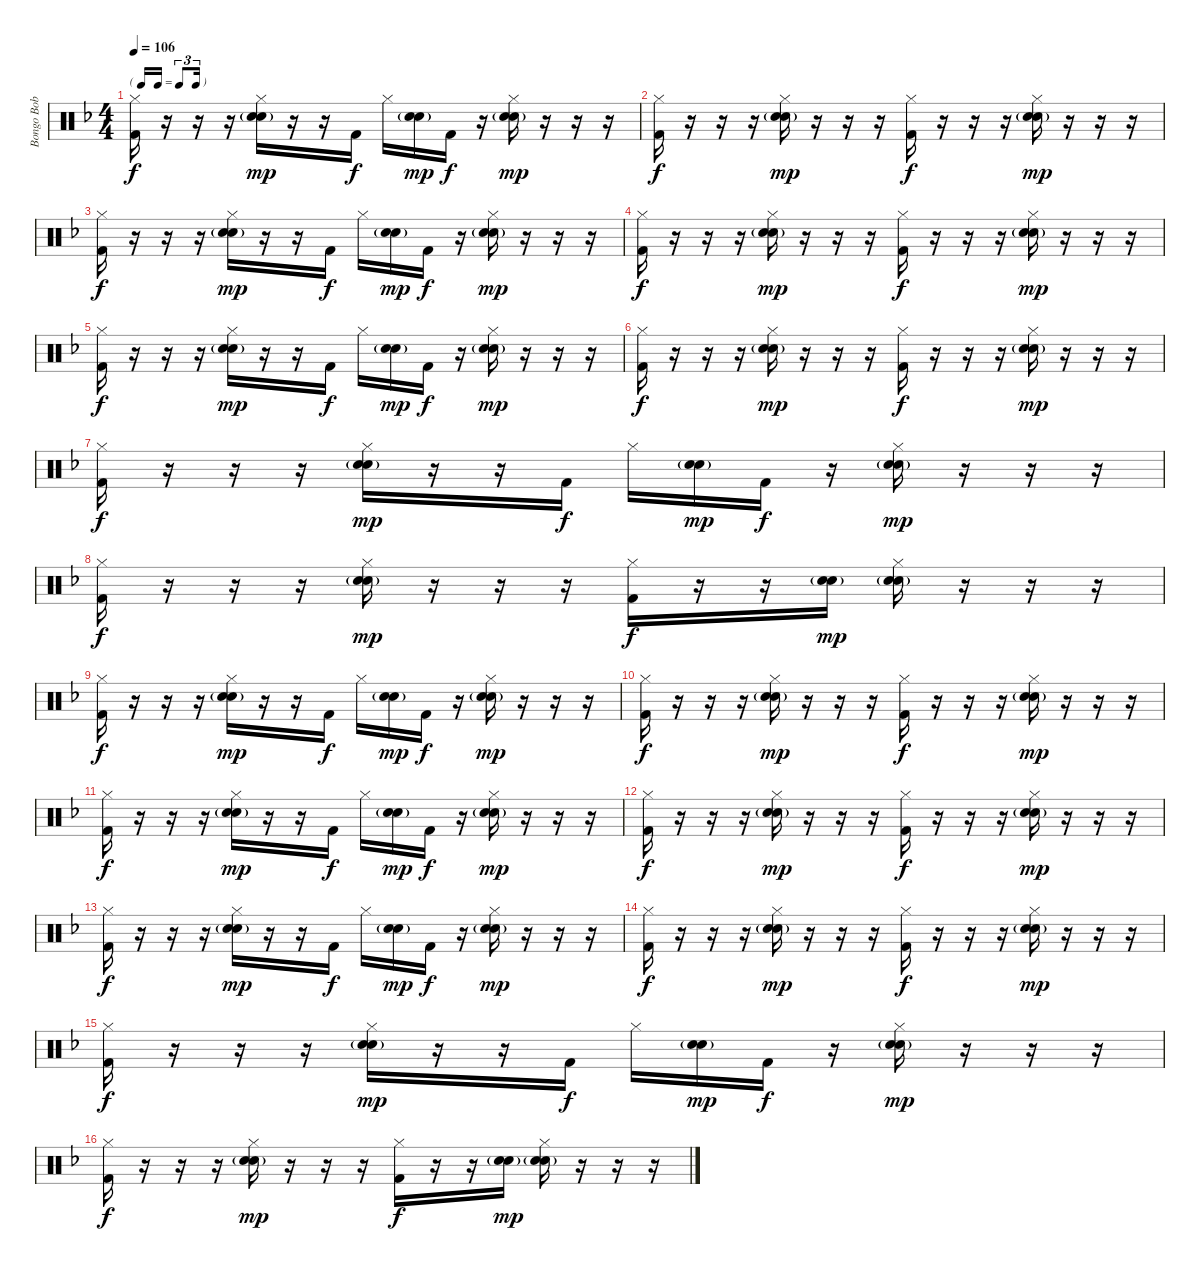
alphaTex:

\track ("Bongo Bob Smith (Drums)" "Bongo Bob ") {instrument percussion}
\staff {score}
\articulation defaults
\ts (4 4)
\tf triplet16th
\tempo 106
\clef neutral
\ks f
("Hi-Hat (closed)" "Kick (hit) 2").16{dy f} r.16 r.16 r.16 ("Hi-Hat (closed)" "Snare (hit) 2"{g} "Electric Snare (hit)").16{dy mp} r.16 r.16 "Kick (hit) 2".16{dy f} "Hi-Hat (closed)".16 ("Snare (hit) 2"{g} "Electric Snare (hit)").16{dy mp} "Kick (hit) 2".16{dy f} r.16 ("Hi-Hat (closed)" "Snare (hit) 2"{g} "Electric Snare (hit)").16{dy mp} r.16 r.16 r.16 |
("Hi-Hat (closed)" "Kick (hit) 2").16{dy f} r.16 r.16 r.16 ("Hi-Hat (closed)" "Snare (hit) 2"{g} "Electric Snare (hit)").16{dy mp} r.16 r.16 r.16 ("Hi-Hat (closed)" "Kick (hit) 2").16{dy f} r.16 r.16 r.16 ("Hi-Hat (closed)" "Snare (hit) 2"{g} "Electric Snare (hit)").16{dy mp} r.16 r.16 r.16 |
("Hi-Hat (closed)" "Kick (hit) 2").16{dy f} r.16 r.16 r.16 ("Hi-Hat (closed)" "Snare (hit) 2"{g} "Electric Snare (hit)").16{dy mp} r.16 r.16 "Kick (hit) 2".16{dy f} "Hi-Hat (closed)".16 ("Snare (hit) 2"{g} "Electric Snare (hit)").16{dy mp} "Kick (hit) 2".16{dy f} r.16 ("Hi-Hat (closed)" "Snare (hit) 2"{g} "Electric Snare (hit)").16{dy mp} r.16 r.16 r.16 |
("Hi-Hat (closed)" "Kick (hit) 2").16{dy f} r.16 r.16 r.16 ("Hi-Hat (closed)" "Snare (hit) 2"{g} "Electric Snare (hit)").16{dy mp} r.16 r.16 r.16 ("Hi-Hat (closed)" "Kick (hit) 2").16{dy f} r.16 r.16 r.16 ("Hi-Hat (closed)" "Snare (hit) 2"{g} "Electric Snare (hit)").16{dy mp} r.16 r.16 r.16 |
("Hi-Hat (closed)" "Kick (hit) 2").16{dy f} r.16 r.16 r.16 ("Hi-Hat (closed)" "Snare (hit) 2"{g} "Electric Snare (hit)").16{dy mp} r.16 r.16 "Kick (hit) 2".16{dy f} "Hi-Hat (closed)".16 ("Snare (hit) 2"{g} "Electric Snare (hit)").16{dy mp} "Kick (hit) 2".16{dy f} r.16 ("Hi-Hat (closed)" "Snare (hit) 2"{g} "Electric Snare (hit)").16{dy mp} r.16 r.16 r.16 |
("Hi-Hat (closed)" "Kick (hit) 2").16{dy f} r.16 r.16 r.16 ("Hi-Hat (closed)" "Snare (hit) 2"{g} "Electric Snare (hit)").16{dy mp} r.16 r.16 r.16 ("Hi-Hat (closed)" "Kick (hit) 2").16{dy f} r.16 r.16 r.16 ("Hi-Hat (closed)" "Snare (hit) 2"{g} "Electric Snare (hit)").16{dy mp} r.16 r.16 r.16 |
("Hi-Hat (closed)" "Kick (hit) 2").16{dy f} r.16 r.16 r.16 ("Hi-Hat (closed)" "Snare (hit) 2"{g} "Electric Snare (hit)").16{dy mp} r.16 r.16 "Kick (hit) 2".16{dy f} "Hi-Hat (closed)".16 ("Snare (hit) 2"{g} "Electric Snare (hit)").16{dy mp} "Kick (hit) 2".16{dy f} r.16 ("Hi-Hat (closed)" "Snare (hit) 2"{g} "Electric Snare (hit)").16{dy mp} r.16 r.16 r.16 |
("Hi-Hat (closed)" "Kick (hit) 2").16{dy f} r.16 r.16 r.16 ("Hi-Hat (closed)" "Snare (hit) 2"{g} "Electric Snare (hit)").16{dy mp} r.16 r.16 r.16 ("Hi-Hat (closed)" "Kick (hit) 2").16{dy f} r.16 r.16 ("Snare (hit) 2"{g} "Electric Snare (hit)").16{dy mp} ("Hi-Hat (closed)" "Snare (hit) 2"{g} "Electric Snare (hit)").16 r.16 r.16 r.16 |
("Hi-Hat (closed)" "Kick (hit) 2").16{dy f} r.16 r.16 r.16 ("Hi-Hat (closed)" "Snare (hit) 2"{g} "Electric Snare (hit)").16{dy mp} r.16 r.16 "Kick (hit) 2".16{dy f} "Hi-Hat (closed)".16 ("Snare (hit) 2"{g} "Electric Snare (hit)").16{dy mp} "Kick (hit) 2".16{dy f} r.16 ("Hi-Hat (closed)" "Snare (hit) 2"{g} "Electric Snare (hit)").16{dy mp} r.16 r.16 r.16 |
("Hi-Hat (closed)" "Kick (hit) 2").16{dy f} r.16 r.16 r.16 ("Hi-Hat (closed)" "Snare (hit) 2"{g} "Electric Snare (hit)").16{dy mp} r.16 r.16 r.16 ("Hi-Hat (closed)" "Kick (hit) 2").16{dy f} r.16 r.16 r.16 ("Hi-Hat (closed)" "Snare (hit) 2"{g} "Electric Snare (hit)").16{dy mp} r.16 r.16 r.16 |
("Hi-Hat (closed)" "Kick (hit) 2").16{dy f} r.16 r.16 r.16 ("Hi-Hat (closed)" "Snare (hit) 2"{g} "Electric Snare (hit)").16{dy mp} r.16 r.16 "Kick (hit) 2".16{dy f} "Hi-Hat (closed)".16 ("Snare (hit) 2"{g} "Electric Snare (hit)").16{dy mp} "Kick (hit) 2".16{dy f} r.16 ("Hi-Hat (closed)" "Snare (hit) 2"{g} "Electric Snare (hit)").16{dy mp} r.16 r.16 r.16 |
("Hi-Hat (closed)" "Kick (hit) 2").16{dy f} r.16 r.16 r.16 ("Hi-Hat (closed)" "Snare (hit) 2"{g} "Electric Snare (hit)").16{dy mp} r.16 r.16 r.16 ("Hi-Hat (closed)" "Kick (hit) 2").16{dy f} r.16 r.16 r.16 ("Hi-Hat (closed)" "Snare (hit) 2"{g} "Electric Snare (hit)").16{dy mp} r.16 r.16 r.16 |
("Hi-Hat (closed)" "Kick (hit) 2").16{dy f} r.16 r.16 r.16 ("Hi-Hat (closed)" "Snare (hit) 2"{g} "Electric Snare (hit)").16{dy mp} r.16 r.16 "Kick (hit) 2".16{dy f} "Hi-Hat (closed)".16 ("Snare (hit) 2"{g} "Electric Snare (hit)").16{dy mp} "Kick (hit) 2".16{dy f} r.16 ("Hi-Hat (closed)" "Snare (hit) 2"{g} "Electric Snare (hit)").16{dy mp} r.16 r.16 r.16 |
("Hi-Hat (closed)" "Kick (hit) 2").16{dy f} r.16 r.16 r.16 ("Hi-Hat (closed)" "Snare (hit) 2"{g} "Electric Snare (hit)").16{dy mp} r.16 r.16 r.16 ("Hi-Hat (closed)" "Kick (hit) 2").16{dy f} r.16 r.16 r.16 ("Hi-Hat (closed)" "Snare (hit) 2"{g} "Electric Snare (hit)").16{dy mp} r.16 r.16 r.16 |
("Hi-Hat (closed)" "Kick (hit) 2").16{dy f} r.16 r.16 r.16 ("Hi-Hat (closed)" "Snare (hit) 2"{g} "Electric Snare (hit)").16{dy mp} r.16 r.16 "Kick (hit) 2".16{dy f} "Hi-Hat (closed)".16 ("Snare (hit) 2"{g} "Electric Snare (hit)").16{dy mp} "Kick (hit) 2".16{dy f} r.16 ("Hi-Hat (closed)" "Snare (hit) 2"{g} "Electric Snare (hit)").16{dy mp} r.16 r.16 r.16 |
("Hi-Hat (closed)" "Kick (hit) 2").16{dy f} r.16 r.16 r.16 ("Hi-Hat (closed)" "Snare (hit) 2"{g} "Electric Snare (hit)").16{dy mp} r.16 r.16 r.16 ("Hi-Hat (closed)" "Kick (hit) 2").16{dy f} r.16 r.16 ("Snare (hit) 2"{g} "Electric Snare (hit)").16{dy mp} ("Hi-Hat (closed)" "Snare (hit) 2"{g} "Electric Snare (hit)").16 r.16 r.16 r.16
